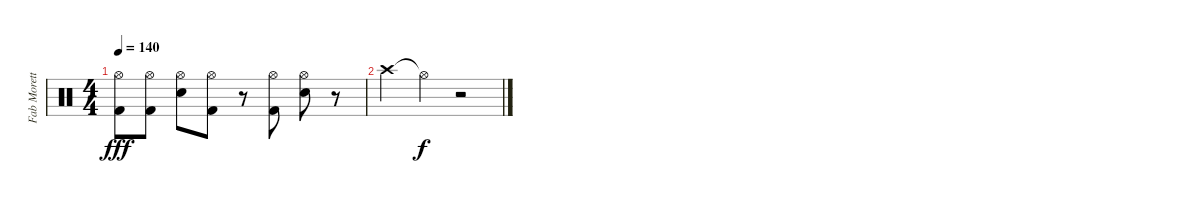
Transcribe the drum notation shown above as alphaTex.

\track ("Fab Moretti" "Fab Morett") {instrument percussion}
\staff {score}
\articulation defaults
\ts (4 4)
\tempo 140
\clef neutral
\ks c
("Hi-Hat (open)" "Kick (hit) 2").8{dy fff} ("Hi-Hat (open)" "Kick (hit) 2").8 ("Hi-Hat (open)" "Snare (hit) 2").8 ("Hi-Hat (open)" "Kick (hit) 2").8 r.8 ("Hi-Hat (open)" "Kick (hit) 2").8 ("Hi-Hat (open)" "Snare (hit) 2").8 r.8 |
"Crash high (hit)".4 "Hi-Hat (open)"{t}.4{dy f} r.2
